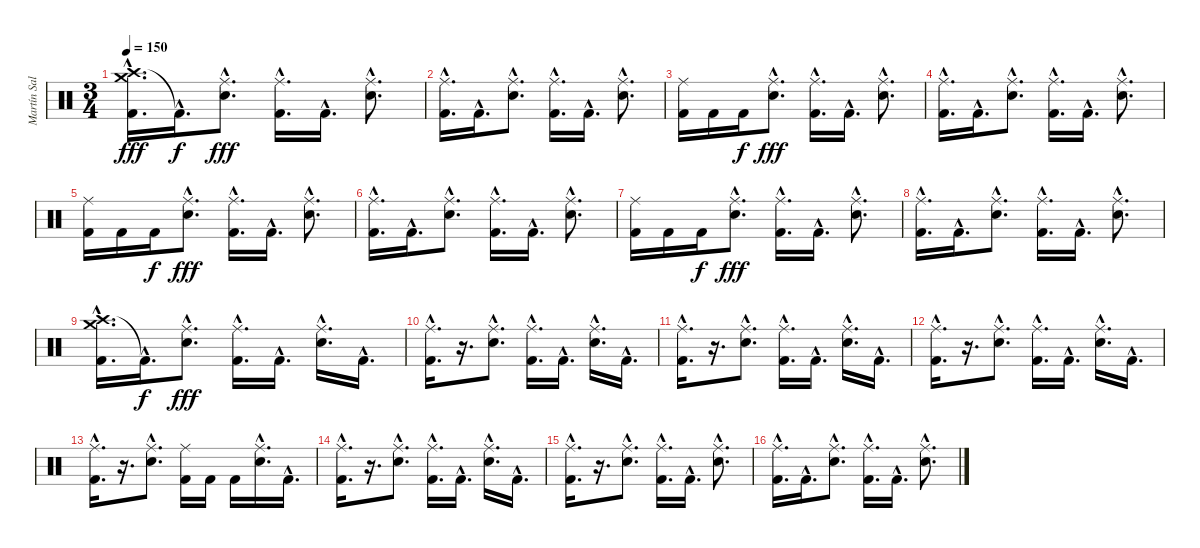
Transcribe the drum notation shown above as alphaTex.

\track ("Martín Salariato" "Martín Sal") {instrument percussion}
\staff {score}
\articulation defaults
\ts (3 4)
\tempo 150
\clef neutral
\ks c
("Crash high (hit)"{hac} "Crash medium (hit)"{hac} "Kick (hit) 2"{hac}).16{d dy fff} "Kick (hit) 2"{hac t}.16{d dy f} ("Ride (middle)"{hac} "Snare (hit) 2"{hac}).8{d dy fff} ("Ride (middle)"{hac} "Kick (hit) 2"{hac}).16{d} "Kick (hit) 2"{hac}.16{d} ("Ride (middle)"{hac} "Snare (hit) 2"{hac}).8{d} |
("Ride (middle)"{hac} "Kick (hit) 2"{hac}).16{d} "Kick (hit) 2"{hac}.16{d} ("Ride (middle)"{hac} "Snare (hit) 2"{hac}).8{d} ("Ride (middle)"{hac} "Kick (hit) 2"{hac}).16{d} "Kick (hit) 2"{hac}.16{d} ("Ride (middle)"{hac} "Snare (hit) 2"{hac}).8{d} |
("Ride (middle)" "Kick (hit) 2").16 "Kick (hit) 2".16 "Kick (hit) 2".16{dy f} ("Ride (middle)"{hac} "Snare (hit) 2"{hac}).8{d dy fff} ("Ride (middle)"{hac} "Kick (hit) 2"{hac}).16{d} "Kick (hit) 2"{hac}.16{d} ("Ride (middle)"{hac} "Snare (hit) 2"{hac}).8{d} |
("Ride (middle)"{hac} "Kick (hit) 2"{hac}).16{d} "Kick (hit) 2"{hac}.16{d} ("Ride (middle)"{hac} "Snare (hit) 2"{hac}).8{d} ("Ride (middle)"{hac} "Kick (hit) 2"{hac}).16{d} "Kick (hit) 2"{hac}.16{d} ("Ride (middle)"{hac} "Snare (hit) 2"{hac}).8{d} |
("Ride (middle)" "Kick (hit) 2").16 "Kick (hit) 2".16 "Kick (hit) 2".16{dy f} ("Ride (middle)"{hac} "Snare (hit) 2"{hac}).8{d dy fff} ("Ride (middle)"{hac} "Kick (hit) 2"{hac}).16{d} "Kick (hit) 2"{hac}.16{d} ("Ride (middle)"{hac} "Snare (hit) 2"{hac}).8{d} |
("Ride (middle)"{hac} "Kick (hit) 2"{hac}).16{d} "Kick (hit) 2"{hac}.16{d} ("Ride (middle)"{hac} "Snare (hit) 2"{hac}).8{d} ("Ride (middle)"{hac} "Kick (hit) 2"{hac}).16{d} "Kick (hit) 2"{hac}.16{d} ("Ride (middle)"{hac} "Snare (hit) 2"{hac}).8{d} |
("Ride (middle)" "Kick (hit) 2").16 "Kick (hit) 2".16 "Kick (hit) 2".16{dy f} ("Ride (middle)"{hac} "Snare (hit) 2"{hac}).8{d dy fff} ("Ride (middle)"{hac} "Kick (hit) 2"{hac}).16{d} "Kick (hit) 2"{hac}.16{d} ("Ride (middle)"{hac} "Snare (hit) 2"{hac}).8{d} |
("Ride (middle)"{hac} "Kick (hit) 2"{hac}).16{d} "Kick (hit) 2"{hac}.16{d} ("Ride (middle)"{hac} "Snare (hit) 2"{hac}).8{d} ("Ride (middle)"{hac} "Kick (hit) 2"{hac}).16{d} "Kick (hit) 2"{hac}.16{d} ("Ride (middle)"{hac} "Snare (hit) 2"{hac}).8{d} |
("Crash high (hit)"{hac} "Crash medium (hit)"{hac} "Kick (hit) 2"{hac}).16{d} "Kick (hit) 2"{hac t}.16{d dy f} ("Ride (middle)"{hac} "Snare (hit) 2"{hac}).8{d dy fff} ("Ride (middle)"{hac} "Kick (hit) 2"{hac}).16{d} "Kick (hit) 2"{hac}.16{d} ("Ride (middle)"{hac} "Snare (hit) 2"{hac}).16{d} "Kick (hit) 2"{hac}.16{d} |
("Ride (middle)"{hac} "Kick (hit) 2"{hac}).16{d} r.16{d} ("Ride (middle)"{hac} "Snare (hit) 2"{hac}).8{d} ("Ride (middle)"{hac} "Kick (hit) 2"{hac}).16{d} "Kick (hit) 2"{hac}.16{d} ("Ride (middle)"{hac} "Snare (hit) 2"{hac}).16{d} "Kick (hit) 2"{hac}.16{d} |
("Ride (middle)"{hac} "Kick (hit) 2"{hac}).16{d} r.16{d} ("Ride (middle)"{hac} "Snare (hit) 2"{hac}).8{d} ("Ride (middle)"{hac} "Kick (hit) 2"{hac}).16{d} "Kick (hit) 2"{hac}.16{d} ("Ride (middle)"{hac} "Snare (hit) 2"{hac}).16{d} "Kick (hit) 2"{hac}.16{d} |
("Ride (middle)"{hac} "Kick (hit) 2"{hac}).16{d} r.16{d} ("Ride (middle)"{hac} "Snare (hit) 2"{hac}).8{d} ("Ride (middle)"{hac} "Kick (hit) 2"{hac}).16{d} "Kick (hit) 2"{hac}.16{d} ("Ride (middle)"{hac} "Snare (hit) 2"{hac}).16{d} "Kick (hit) 2"{hac}.16{d} |
("Ride (middle)"{hac} "Kick (hit) 2"{hac}).16{d} r.16{d} ("Ride (middle)"{hac} "Snare (hit) 2"{hac}).8{d} ("Ride (middle)" "Kick (hit) 2").16 "Kick (hit) 2".16 "Kick (hit) 2".16 ("Ride (middle)"{hac} "Snare (hit) 2"{hac}).16{d} "Kick (hit) 2"{hac}.16{d} |
("Ride (middle)"{hac} "Kick (hit) 2"{hac}).16{d} r.16{d} ("Ride (middle)"{hac} "Snare (hit) 2"{hac}).8{d} ("Ride (middle)"{hac} "Kick (hit) 2"{hac}).16{d} "Kick (hit) 2"{hac}.16{d} ("Ride (middle)"{hac} "Snare (hit) 2"{hac}).16{d} "Kick (hit) 2"{hac}.16{d} |
("Ride (middle)"{hac} "Kick (hit) 2"{hac}).16{d} r.16{d} ("Ride (middle)"{hac} "Snare (hit) 2"{hac}).8{d} ("Ride (middle)"{hac} "Kick (hit) 2"{hac}).16{d} "Kick (hit) 2"{hac}.16{d} ("Ride (middle)"{hac} "Snare (hit) 2"{hac}).8{d} |
("Ride (middle)"{hac} "Kick (hit) 2"{hac}).16{d} "Kick (hit) 2"{hac}.16{d} ("Ride (middle)"{hac} "Snare (hit) 2"{hac}).8{d} ("Ride (middle)"{hac} "Kick (hit) 2"{hac}).16{d} "Kick (hit) 2"{hac}.16{d} ("Ride (middle)"{hac} "Snare (hit) 2"{hac}).8{d}
